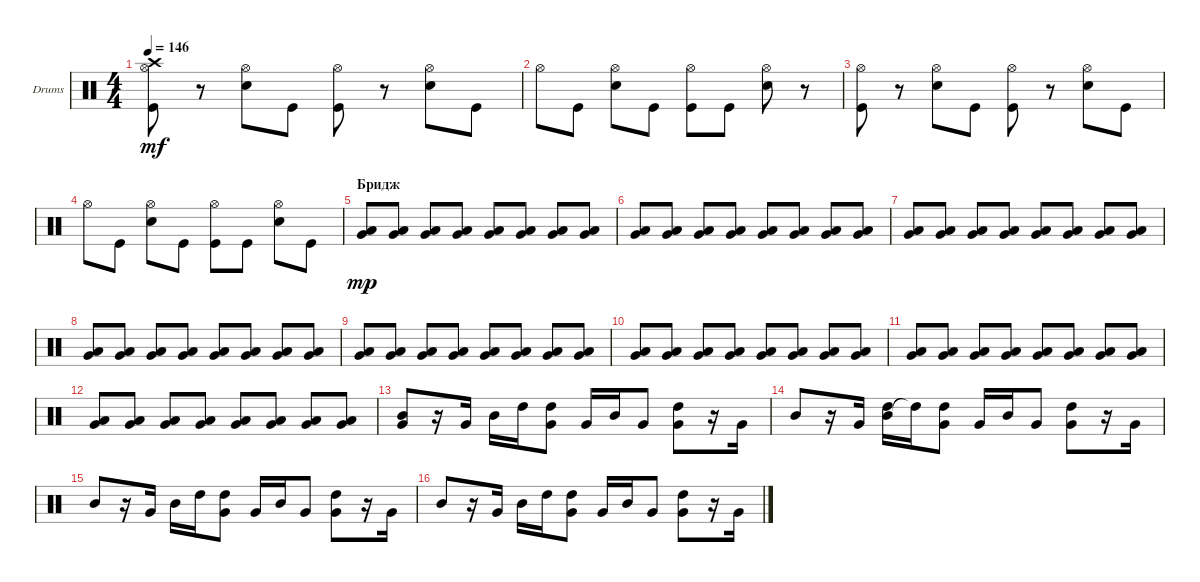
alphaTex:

\defaultSystemsLayout 4
\bracketExtendMode groupsimilarinstruments
\firstSystemTrackNameOrientation horizontal
\otherSystemsTrackNameOrientation horizontal
\track ("Drumkit" "Drums") {instrument percussion}
\staff {score}
\articulation defaults
\ts (4 4)
\tempo 146
\clef neutral
\ks c
("Kick (hit)" "Hi-Hat (open)" "Crash high (hit)").8{dy mf} r.8 ("Snare (hit) 2" "Hi-Hat (open)").8 "Kick (hit)".8 ("Kick (hit)" "Hi-Hat (open)").8 r.8 ("Snare (hit) 2" "Hi-Hat (open)").8 "Kick (hit)".8 |
"Hi-Hat (open)".8 "Kick (hit)".8 ("Snare (hit) 2" "Hi-Hat (open)").8 "Kick (hit)".8 ("Hi-Hat (open)" "Kick (hit)").8 "Kick (hit)".8 ("Snare (hit) 2" "Hi-Hat (open)").8 r.8 |
("Kick (hit)" "Hi-Hat (open)").8 r.8 ("Snare (hit) 2" "Hi-Hat (open)").8 "Kick (hit)".8 ("Kick (hit)" "Hi-Hat (open)").8 r.8 ("Snare (hit) 2" "Hi-Hat (open)").8 "Kick (hit)".8 |
"Hi-Hat (open)".8 "Kick (hit)".8 ("Snare (hit) 2" "Hi-Hat (open)").8 "Kick (hit)".8 ("Hi-Hat (open)" "Kick (hit)").8 "Kick (hit)".8 ("Snare (hit) 2" "Hi-Hat (open)").8 "Kick (hit)".8 |
\section ("" "Бридж")
("Low Tom (hit)" "Very Low Tom (hit)").8{dy mp} ("Low Tom (hit)" "Very Low Tom (hit)").8 ("Low Tom (hit)" "Very Low Tom (hit)").8 ("Low Tom (hit)" "Very Low Tom (hit)").8 ("Low Tom (hit)" "Very Low Tom (hit)").8 ("Low Tom (hit)" "Very Low Tom (hit)").8 ("Low Tom (hit)" "Very Low Tom (hit)").8 ("Low Tom (hit)" "Very Low Tom (hit)").8 |
("Low Tom (hit)" "Very Low Tom (hit)").8 ("Low Tom (hit)" "Very Low Tom (hit)").8 ("Low Tom (hit)" "Very Low Tom (hit)").8 ("Low Tom (hit)" "Very Low Tom (hit)").8 ("Low Tom (hit)" "Very Low Tom (hit)").8 ("Low Tom (hit)" "Very Low Tom (hit)").8 ("Low Tom (hit)" "Very Low Tom (hit)").8 ("Low Tom (hit)" "Very Low Tom (hit)").8 |
("Low Tom (hit)" "Very Low Tom (hit)").8 ("Low Tom (hit)" "Very Low Tom (hit)").8 ("Low Tom (hit)" "Very Low Tom (hit)").8 ("Low Tom (hit)" "Very Low Tom (hit)").8 ("Low Tom (hit)" "Very Low Tom (hit)").8 ("Low Tom (hit)" "Very Low Tom (hit)").8 ("Low Tom (hit)" "Very Low Tom (hit)").8 ("Low Tom (hit)" "Very Low Tom (hit)").8 |
("Low Tom (hit)" "Very Low Tom (hit)").8 ("Low Tom (hit)" "Very Low Tom (hit)").8 ("Low Tom (hit)" "Very Low Tom (hit)").8 ("Low Tom (hit)" "Very Low Tom (hit)").8 ("Low Tom (hit)" "Very Low Tom (hit)").8 ("Low Tom (hit)" "Very Low Tom (hit)").8 ("Low Tom (hit)" "Very Low Tom (hit)").8 ("Low Tom (hit)" "Very Low Tom (hit)").8 |
("Low Tom (hit)" "Very Low Tom (hit)").8 ("Low Tom (hit)" "Very Low Tom (hit)").8 ("Low Tom (hit)" "Very Low Tom (hit)").8 ("Low Tom (hit)" "Very Low Tom (hit)").8 ("Low Tom (hit)" "Very Low Tom (hit)").8 ("Low Tom (hit)" "Very Low Tom (hit)").8 ("Low Tom (hit)" "Very Low Tom (hit)").8 ("Low Tom (hit)" "Very Low Tom (hit)").8 |
("Low Tom (hit)" "Very Low Tom (hit)").8 ("Low Tom (hit)" "Very Low Tom (hit)").8 ("Low Tom (hit)" "Very Low Tom (hit)").8 ("Low Tom (hit)" "Very Low Tom (hit)").8 ("Low Tom (hit)" "Very Low Tom (hit)").8 ("Low Tom (hit)" "Very Low Tom (hit)").8 ("Low Tom (hit)" "Very Low Tom (hit)").8 ("Low Tom (hit)" "Very Low Tom (hit)").8 |
("Low Tom (hit)" "Very Low Tom (hit)").8 ("Low Tom (hit)" "Very Low Tom (hit)").8 ("Low Tom (hit)" "Very Low Tom (hit)").8 ("Low Tom (hit)" "Very Low Tom (hit)").8 ("Low Tom (hit)" "Very Low Tom (hit)").8 ("Low Tom (hit)" "Very Low Tom (hit)").8 ("Low Tom (hit)" "Very Low Tom (hit)").8 ("Low Tom (hit)" "Very Low Tom (hit)").8 |
("Low Tom (hit)" "Very Low Tom (hit)").8 ("Low Tom (hit)" "Very Low Tom (hit)").8 ("Low Tom (hit)" "Very Low Tom (hit)").8 ("Low Tom (hit)" "Very Low Tom (hit)").8 ("Low Tom (hit)" "Very Low Tom (hit)").8 ("Low Tom (hit)" "Very Low Tom (hit)").8 ("Low Tom (hit)" "Very Low Tom (hit)").8 ("Low Tom (hit)" "Very Low Tom (hit)").8 |
("Mid Tom (hit)" "Very Low Tom (hit)").8 r.16 "Very Low Tom (hit)".16 "Mid Tom (hit)".16 "High Tom (hit)".16 ("Very Low Tom (hit)" "High Tom (hit)").8 "Very Low Tom (hit)".16 "Mid Tom (hit)".16 "Very Low Tom (hit)".8 ("Very Low Tom (hit)" "High Tom (hit)").8 r.16 "Very Low Tom (hit)".16 |
"Mid Tom (hit)".8 r.16 "Very Low Tom (hit)".16 ("Mid Tom (hit)" "High Tom (hit)").16 "High Tom (hit)"{t}.16 ("Very Low Tom (hit)" "High Tom (hit)").8 "Very Low Tom (hit)".16 "Mid Tom (hit)".16 "Very Low Tom (hit)".8 ("Very Low Tom (hit)" "High Tom (hit)").8 r.16 "Very Low Tom (hit)".16 |
"Mid Tom (hit)".8 r.16 "Very Low Tom (hit)".16 "Mid Tom (hit)".16 "High Tom (hit)".16 ("Very Low Tom (hit)" "High Tom (hit)").8 "Very Low Tom (hit)".16 "Mid Tom (hit)".16 "Very Low Tom (hit)".8 ("Very Low Tom (hit)" "High Tom (hit)").8 r.16 "Very Low Tom (hit)".16 |
"Mid Tom (hit)".8 r.16 "Very Low Tom (hit)".16 "Mid Tom (hit)".16 "High Tom (hit)".16 ("Very Low Tom (hit)" "High Tom (hit)").8 "Very Low Tom (hit)".16 "Mid Tom (hit)".16 "Very Low Tom (hit)".8 ("Very Low Tom (hit)" "High Tom (hit)").8 r.16 "Very Low Tom (hit)".16
